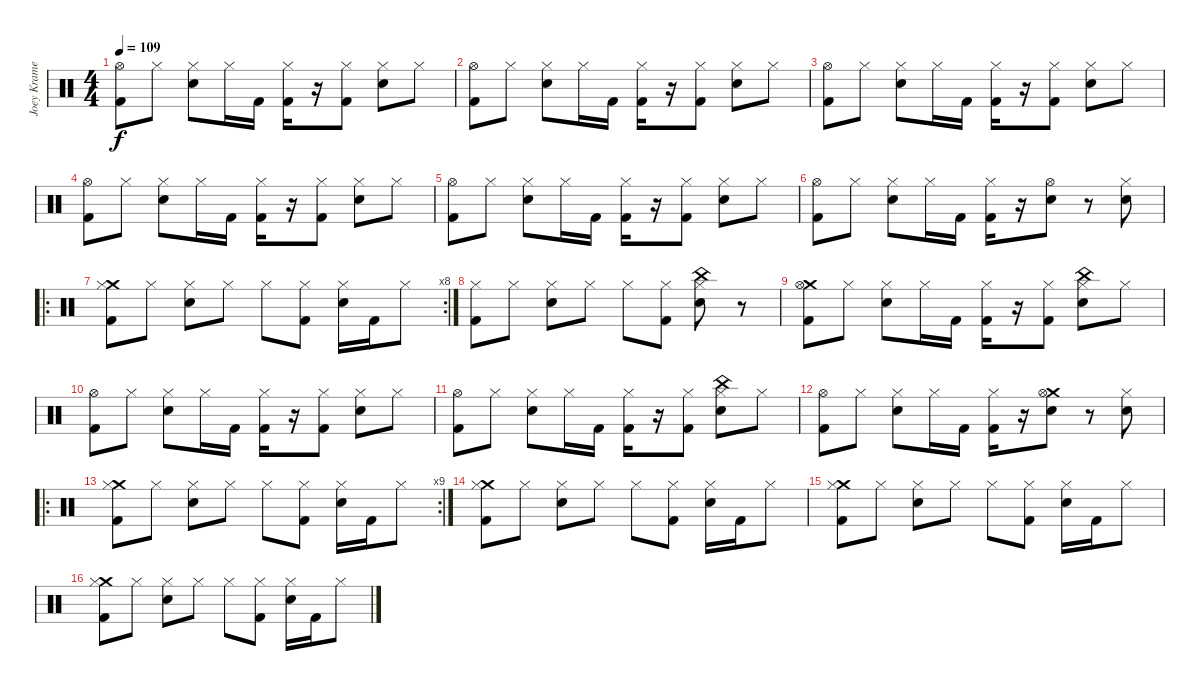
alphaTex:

\track ("Joey Kramer" "Joey Krame") {instrument percussion}
\staff {score}
\articulation defaults
\ts (4 4)
\tempo 109
\clef neutral
\ks c
("Hi-Hat (open)" "Kick (hit) 2").8{dy f} "Hi-Hat (closed)".8 ("Hi-Hat (closed)" "Snare (hit) 2").8 "Hi-Hat (closed)".16 "Kick (hit) 2".16 ("Hi-Hat (closed)" "Kick (hit) 2").16 r.16 ("Hi-Hat (closed)" "Kick (hit) 2").8 ("Hi-Hat (closed)" "Snare (hit) 2").8 "Hi-Hat (closed)".8 |
("Hi-Hat (open)" "Kick (hit) 2").8 "Hi-Hat (closed)".8 ("Hi-Hat (closed)" "Snare (hit) 2").8 "Hi-Hat (closed)".16 "Kick (hit) 2".16 ("Hi-Hat (closed)" "Kick (hit) 2").16 r.16 ("Hi-Hat (closed)" "Kick (hit) 2").8 ("Hi-Hat (closed)" "Snare (hit) 2").8 "Hi-Hat (closed)".8 |
("Hi-Hat (open)" "Kick (hit) 2").8 "Hi-Hat (closed)".8 ("Hi-Hat (closed)" "Snare (hit) 2").8 "Hi-Hat (closed)".16 "Kick (hit) 2".16 ("Hi-Hat (closed)" "Kick (hit) 2").16 r.16 ("Hi-Hat (closed)" "Kick (hit) 2").8 ("Hi-Hat (closed)" "Snare (hit) 2").8 "Hi-Hat (closed)".8 |
("Hi-Hat (open)" "Kick (hit) 2").8 "Hi-Hat (closed)".8 ("Hi-Hat (closed)" "Snare (hit) 2").8 "Hi-Hat (closed)".16 "Kick (hit) 2".16 ("Hi-Hat (closed)" "Kick (hit) 2").16 r.16 ("Hi-Hat (closed)" "Kick (hit) 2").8 ("Hi-Hat (closed)" "Snare (hit) 2").8 "Hi-Hat (closed)".8 |
("Hi-Hat (open)" "Kick (hit) 2").8 "Hi-Hat (closed)".8 ("Hi-Hat (closed)" "Snare (hit) 2").8 "Hi-Hat (closed)".16 "Kick (hit) 2".16 ("Hi-Hat (closed)" "Kick (hit) 2").16 r.16 ("Hi-Hat (closed)" "Kick (hit) 2").8 ("Hi-Hat (closed)" "Snare (hit) 2").8 "Hi-Hat (closed)".8 |
("Hi-Hat (open)" "Kick (hit) 2").8 "Hi-Hat (closed)".8 ("Hi-Hat (closed)" "Snare (hit) 2").8 "Hi-Hat (closed)".16 "Kick (hit) 2".16 ("Hi-Hat (closed)" "Kick (hit) 2").16 r.16 ("Hi-Hat (open)" "Snare (hit) 2").8 r.8 ("Snare (hit) 2" "Hi-Hat (closed)").8 |
\ro
\rc 8
("Crash medium (hit)" "Hi-Hat (closed)" "Kick (hit) 2").8 "Hi-Hat (closed)".8 ("Hi-Hat (closed)" "Snare (hit) 2").8 "Hi-Hat (closed)".8 "Hi-Hat (closed)".8 ("Hi-Hat (closed)" "Kick (hit) 2").8 ("Hi-Hat (closed)" "Snare (hit) 2").16 "Kick (hit) 2".16 "Hi-Hat (closed)".8 |
("Hi-Hat (closed)" "Kick (hit) 2").8 "Hi-Hat (closed)".8 ("Hi-Hat (closed)" "Snare (hit) 2").8 "Hi-Hat (closed)".8 "Hi-Hat (closed)".8 ("Hi-Hat (closed)" "Kick (hit) 2").8 ("China (hit)" "Hi-Hat (closed)" "Snare (hit) 2").8 r.8 |
("Crash medium (hit)" "Hi-Hat (open)" "Kick (hit) 2").8 "Hi-Hat (closed)".8 ("Hi-Hat (closed)" "Snare (hit) 2").8 "Hi-Hat (closed)".16 "Kick (hit) 2".16 ("Hi-Hat (closed)" "Kick (hit) 2").16 r.16 ("Hi-Hat (closed)" "Kick (hit) 2").8 ("China (hit)" "Hi-Hat (closed)" "Snare (hit) 2").8 "Hi-Hat (closed)".8 |
("Hi-Hat (open)" "Kick (hit) 2").8 "Hi-Hat (closed)".8 ("Hi-Hat (closed)" "Snare (hit) 2").8 "Hi-Hat (closed)".16 "Kick (hit) 2".16 ("Hi-Hat (closed)" "Kick (hit) 2").16 r.16 ("Hi-Hat (closed)" "Kick (hit) 2").8 ("Hi-Hat (closed)" "Snare (hit) 2").8 "Hi-Hat (closed)".8 |
("Hi-Hat (open)" "Kick (hit) 2").8 "Hi-Hat (closed)".8 ("Hi-Hat (closed)" "Snare (hit) 2").8 "Hi-Hat (closed)".16 "Kick (hit) 2".16 ("Hi-Hat (closed)" "Kick (hit) 2").16 r.16 ("Hi-Hat (closed)" "Kick (hit) 2").8 ("China (hit)" "Hi-Hat (closed)" "Snare (hit) 2").8 "Hi-Hat (closed)".8 |
("Hi-Hat (open)" "Kick (hit) 2").8 "Hi-Hat (closed)".8 ("Hi-Hat (closed)" "Snare (hit) 2").8 "Hi-Hat (closed)".16 "Kick (hit) 2".16 ("Hi-Hat (closed)" "Kick (hit) 2").16 r.16 ("Crash medium (hit)" "Hi-Hat (open)" "Snare (hit) 2").8 r.8 ("Snare (hit) 2" "Hi-Hat (closed)").8 |
\ro
\rc 9
("Crash medium (hit)" "Hi-Hat (closed)" "Kick (hit) 2").8 "Hi-Hat (closed)".8 ("Hi-Hat (closed)" "Snare (hit) 2").8 "Hi-Hat (closed)".8 "Hi-Hat (closed)".8 ("Hi-Hat (closed)" "Kick (hit) 2").8 ("Hi-Hat (closed)" "Snare (hit) 2").16 "Kick (hit) 2".16 "Hi-Hat (closed)".8 |
("Crash medium (hit)" "Hi-Hat (closed)" "Kick (hit) 2").8 "Hi-Hat (closed)".8 ("Hi-Hat (closed)" "Snare (hit) 2").8 "Hi-Hat (closed)".8 "Hi-Hat (closed)".8 ("Hi-Hat (closed)" "Kick (hit) 2").8 ("Hi-Hat (closed)" "Snare (hit) 2").16 "Kick (hit) 2".16 "Hi-Hat (closed)".8 |
("Crash medium (hit)" "Hi-Hat (closed)" "Kick (hit) 2").8 "Hi-Hat (closed)".8 ("Hi-Hat (closed)" "Snare (hit) 2").8 "Hi-Hat (closed)".8 "Hi-Hat (closed)".8 ("Hi-Hat (closed)" "Kick (hit) 2").8 ("Hi-Hat (closed)" "Snare (hit) 2").16 "Kick (hit) 2".16 "Hi-Hat (closed)".8 |
("Crash medium (hit)" "Hi-Hat (closed)" "Kick (hit) 2").8 "Hi-Hat (closed)".8 ("Hi-Hat (closed)" "Snare (hit) 2").8 "Hi-Hat (closed)".8 "Hi-Hat (closed)".8 ("Hi-Hat (closed)" "Kick (hit) 2").8 ("Hi-Hat (closed)" "Snare (hit) 2").16 "Kick (hit) 2".16 "Hi-Hat (closed)".8
